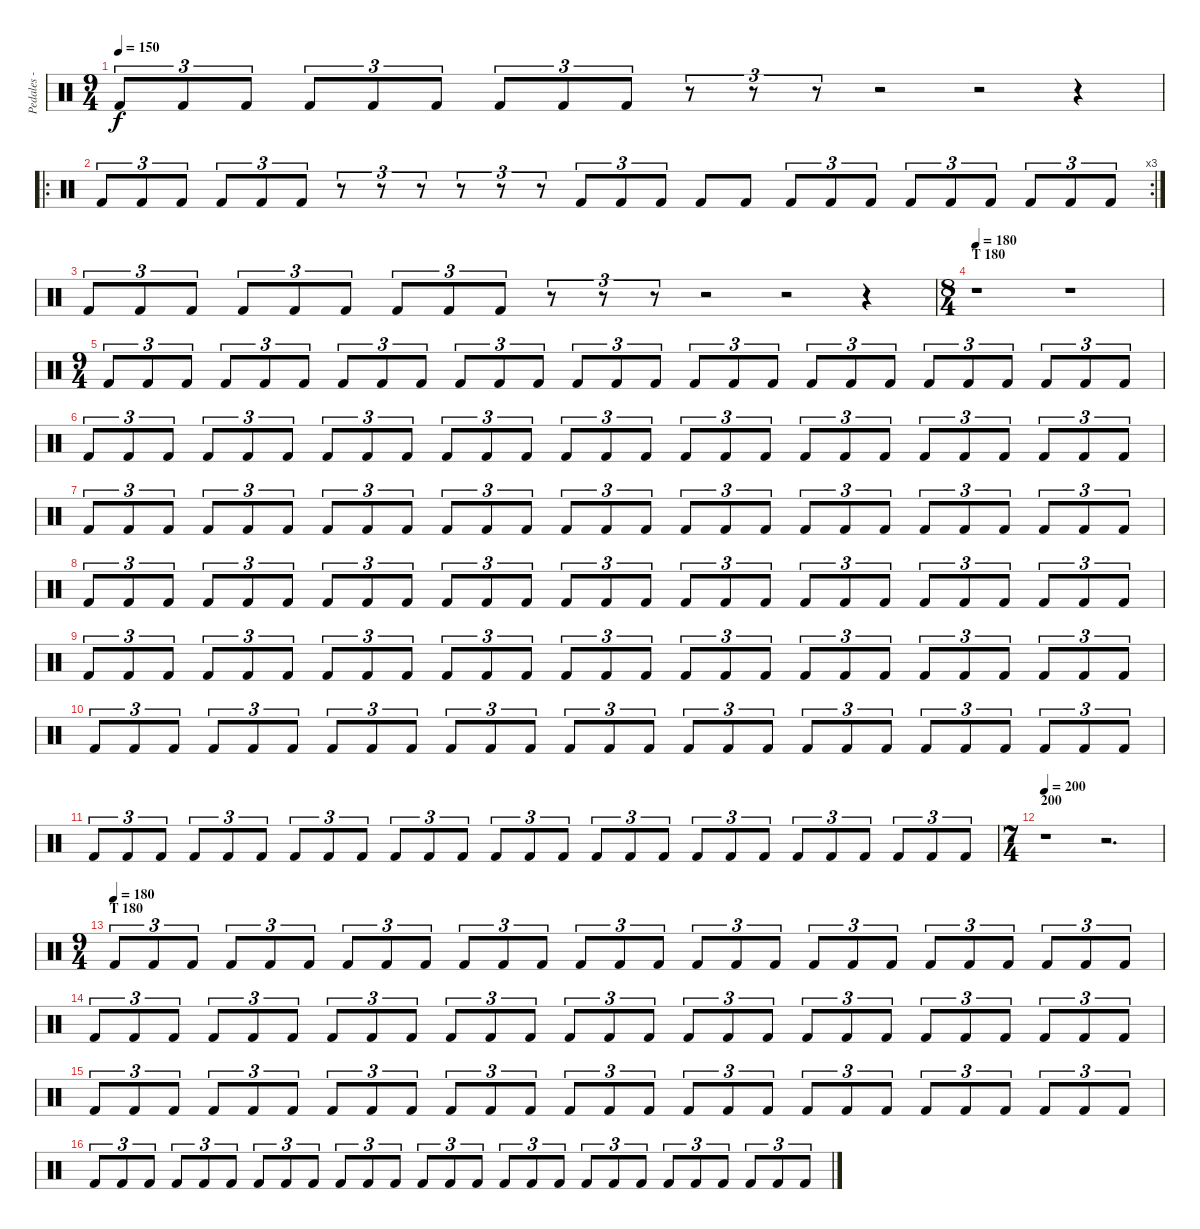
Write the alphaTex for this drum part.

\track ("Pedales - Compa" "Pedales - ") {instrument percussion}
\staff {score}
\articulation defaults
\ts (9 4)
\tempo 150
\clef neutral
\ks c "Kick (hit) 2".8{tu (3 2) dy f} "Kick (hit) 2".8{tu (3 2)} "Kick (hit) 2".8{tu (3 2)} "Kick (hit) 2".8{tu (3 2)} "Kick (hit) 2".8{tu (3 2)} "Kick (hit) 2".8{tu (3 2)} "Kick (hit) 2".8{tu (3 2)} "Kick (hit) 2".8{tu (3 2)} "Kick (hit) 2".8{tu (3 2)}
r.8{tu (3 2)} r.8{tu (3 2)} r.8{tu (3 2)} r.2 r.2 r.4 |
\ro
\rc 3 "Kick (hit) 2".8{tu (3 2)} "Kick (hit) 2".8{tu (3 2)} "Kick (hit) 2".8{tu (3 2)} "Kick (hit) 2".8{tu (3 2)} "Kick (hit) 2".8{tu (3 2)} "Kick (hit) 2".8{tu (3 2)}
r.8{tu (3 2)} r.8{tu (3 2)} r.8{tu (3 2)} r.8{tu (3 2)} r.8{tu (3 2)} r.8{tu (3 2)} "Kick (hit) 2".8{tu (3 2)} "Kick (hit) 2".8{tu (3 2)} "Kick (hit) 2".8{tu (3 2)} "Kick (hit) 2".8 "Kick (hit) 2".8 "Kick (hit) 2".8{tu (3 2)} "Kick (hit) 2".8{tu (3 2)} "Kick (hit) 2".8{tu (3 2)} "Kick (hit) 2".8{tu (3 2)} "Kick (hit) 2".8{tu (3 2)} "Kick (hit) 2".8{tu (3 2)} "Kick (hit) 2".8{tu (3 2)} "Kick (hit) 2".8{tu (3 2)} "Kick (hit) 2".8{tu (3 2)} |
"Kick (hit) 2".8{tu (3 2)} "Kick (hit) 2".8{tu (3 2)} "Kick (hit) 2".8{tu (3 2)} "Kick (hit) 2".8{tu (3 2)} "Kick (hit) 2".8{tu (3 2)} "Kick (hit) 2".8{tu (3 2)} "Kick (hit) 2".8{tu (3 2)} "Kick (hit) 2".8{tu (3 2)} "Kick (hit) 2".8{tu (3 2)} r.8{tu (3 2)} r.8{tu (3 2)} r.8{tu (3 2)} r.2 r.2 r.4 |
\ts (8 4)
\section ("" "T 180")
\tempo 180
r.1 r.1 |
\ts (9 4)
"Kick (hit) 2".8{tu (3 2)} "Kick (hit) 2".8{tu (3 2)} "Kick (hit) 2".8{tu (3 2)} "Kick (hit) 2".8{tu (3 2)} "Kick (hit) 2".8{tu (3 2)} "Kick (hit) 2".8{tu (3 2)} "Kick (hit) 2".8{tu (3 2)} "Kick (hit) 2".8{tu (3 2)} "Kick (hit) 2".8{tu (3 2)} "Kick (hit) 2".8{tu (3 2)} "Kick (hit) 2".8{tu (3 2)} "Kick (hit) 2".8{tu (3 2)} "Kick (hit) 2".8{tu (3 2)} "Kick (hit) 2".8{tu (3 2)} "Kick (hit) 2".8{tu (3 2)} "Kick (hit) 2".8{tu (3 2)} "Kick (hit) 2".8{tu (3 2)} "Kick (hit) 2".8{tu (3 2)} "Kick (hit) 2".8{tu (3 2)} "Kick (hit) 2".8{tu (3 2)} "Kick (hit) 2".8{tu (3 2)} "Kick (hit) 2".8{tu (3 2)} "Kick (hit) 2".8{tu (3 2)} "Kick (hit) 2".8{tu (3 2)} "Kick (hit) 2".8{tu (3 2)} "Kick (hit) 2".8{tu (3 2)} "Kick (hit) 2".8{tu (3 2)} |
"Kick (hit) 2".8{tu (3 2)} "Kick (hit) 2".8{tu (3 2)} "Kick (hit) 2".8{tu (3 2)} "Kick (hit) 2".8{tu (3 2)} "Kick (hit) 2".8{tu (3 2)} "Kick (hit) 2".8{tu (3 2)} "Kick (hit) 2".8{tu (3 2)} "Kick (hit) 2".8{tu (3 2)} "Kick (hit) 2".8{tu (3 2)} "Kick (hit) 2".8{tu (3 2)} "Kick (hit) 2".8{tu (3 2)} "Kick (hit) 2".8{tu (3 2)} "Kick (hit) 2".8{tu (3 2)} "Kick (hit) 2".8{tu (3 2)} "Kick (hit) 2".8{tu (3 2)} "Kick (hit) 2".8{tu (3 2)} "Kick (hit) 2".8{tu (3 2)} "Kick (hit) 2".8{tu (3 2)} "Kick (hit) 2".8{tu (3 2)} "Kick (hit) 2".8{tu (3 2)} "Kick (hit) 2".8{tu (3 2)} "Kick (hit) 2".8{tu (3 2)} "Kick (hit) 2".8{tu (3 2)} "Kick (hit) 2".8{tu (3 2)} "Kick (hit) 2".8{tu (3 2)} "Kick (hit) 2".8{tu (3 2)} "Kick (hit) 2".8{tu (3 2)} |
"Kick (hit) 2".8{tu (3 2)} "Kick (hit) 2".8{tu (3 2)} "Kick (hit) 2".8{tu (3 2)} "Kick (hit) 2".8{tu (3 2)} "Kick (hit) 2".8{tu (3 2)} "Kick (hit) 2".8{tu (3 2)} "Kick (hit) 2".8{tu (3 2)} "Kick (hit) 2".8{tu (3 2)} "Kick (hit) 2".8{tu (3 2)} "Kick (hit) 2".8{tu (3 2)} "Kick (hit) 2".8{tu (3 2)} "Kick (hit) 2".8{tu (3 2)} "Kick (hit) 2".8{tu (3 2)} "Kick (hit) 2".8{tu (3 2)} "Kick (hit) 2".8{tu (3 2)} "Kick (hit) 2".8{tu (3 2)} "Kick (hit) 2".8{tu (3 2)} "Kick (hit) 2".8{tu (3 2)} "Kick (hit) 2".8{tu (3 2)} "Kick (hit) 2".8{tu (3 2)} "Kick (hit) 2".8{tu (3 2)} "Kick (hit) 2".8{tu (3 2)} "Kick (hit) 2".8{tu (3 2)} "Kick (hit) 2".8{tu (3 2)} "Kick (hit) 2".8{tu (3 2)} "Kick (hit) 2".8{tu (3 2)} "Kick (hit) 2".8{tu (3 2)} |
"Kick (hit) 2".8{tu (3 2)} "Kick (hit) 2".8{tu (3 2)} "Kick (hit) 2".8{tu (3 2)} "Kick (hit) 2".8{tu (3 2)} "Kick (hit) 2".8{tu (3 2)} "Kick (hit) 2".8{tu (3 2)} "Kick (hit) 2".8{tu (3 2)} "Kick (hit) 2".8{tu (3 2)} "Kick (hit) 2".8{tu (3 2)} "Kick (hit) 2".8{tu (3 2)} "Kick (hit) 2".8{tu (3 2)} "Kick (hit) 2".8{tu (3 2)} "Kick (hit) 2".8{tu (3 2)} "Kick (hit) 2".8{tu (3 2)} "Kick (hit) 2".8{tu (3 2)} "Kick (hit) 2".8{tu (3 2)} "Kick (hit) 2".8{tu (3 2)} "Kick (hit) 2".8{tu (3 2)} "Kick (hit) 2".8{tu (3 2)} "Kick (hit) 2".8{tu (3 2)} "Kick (hit) 2".8{tu (3 2)} "Kick (hit) 2".8{tu (3 2)} "Kick (hit) 2".8{tu (3 2)} "Kick (hit) 2".8{tu (3 2)} "Kick (hit) 2".8{tu (3 2)} "Kick (hit) 2".8{tu (3 2)} "Kick (hit) 2".8{tu (3 2)} |
"Kick (hit) 2".8{tu (3 2)} "Kick (hit) 2".8{tu (3 2)} "Kick (hit) 2".8{tu (3 2)} "Kick (hit) 2".8{tu (3 2)} "Kick (hit) 2".8{tu (3 2)} "Kick (hit) 2".8{tu (3 2)} "Kick (hit) 2".8{tu (3 2)} "Kick (hit) 2".8{tu (3 2)} "Kick (hit) 2".8{tu (3 2)} "Kick (hit) 2".8{tu (3 2)} "Kick (hit) 2".8{tu (3 2)} "Kick (hit) 2".8{tu (3 2)} "Kick (hit) 2".8{tu (3 2)} "Kick (hit) 2".8{tu (3 2)} "Kick (hit) 2".8{tu (3 2)} "Kick (hit) 2".8{tu (3 2)} "Kick (hit) 2".8{tu (3 2)} "Kick (hit) 2".8{tu (3 2)} "Kick (hit) 2".8{tu (3 2)} "Kick (hit) 2".8{tu (3 2)} "Kick (hit) 2".8{tu (3 2)} "Kick (hit) 2".8{tu (3 2)} "Kick (hit) 2".8{tu (3 2)} "Kick (hit) 2".8{tu (3 2)} "Kick (hit) 2".8{tu (3 2)} "Kick (hit) 2".8{tu (3 2)} "Kick (hit) 2".8{tu (3 2)} |
"Kick (hit) 2".8{tu (3 2)} "Kick (hit) 2".8{tu (3 2)} "Kick (hit) 2".8{tu (3 2)} "Kick (hit) 2".8{tu (3 2)} "Kick (hit) 2".8{tu (3 2)} "Kick (hit) 2".8{tu (3 2)} "Kick (hit) 2".8{tu (3 2)} "Kick (hit) 2".8{tu (3 2)} "Kick (hit) 2".8{tu (3 2)} "Kick (hit) 2".8{tu (3 2)} "Kick (hit) 2".8{tu (3 2)} "Kick (hit) 2".8{tu (3 2)} "Kick (hit) 2".8{tu (3 2)} "Kick (hit) 2".8{tu (3 2)} "Kick (hit) 2".8{tu (3 2)} "Kick (hit) 2".8{tu (3 2)} "Kick (hit) 2".8{tu (3 2)} "Kick (hit) 2".8{tu (3 2)} "Kick (hit) 2".8{tu (3 2)} "Kick (hit) 2".8{tu (3 2)} "Kick (hit) 2".8{tu (3 2)} "Kick (hit) 2".8{tu (3 2)} "Kick (hit) 2".8{tu (3 2)} "Kick (hit) 2".8{tu (3 2)} "Kick (hit) 2".8{tu (3 2)} "Kick (hit) 2".8{tu (3 2)} "Kick (hit) 2".8{tu (3 2)} |
"Kick (hit) 2".8{tu (3 2)} "Kick (hit) 2".8{tu (3 2)} "Kick (hit) 2".8{tu (3 2)} "Kick (hit) 2".8{tu (3 2)} "Kick (hit) 2".8{tu (3 2)} "Kick (hit) 2".8{tu (3 2)} "Kick (hit) 2".8{tu (3 2)} "Kick (hit) 2".8{tu (3 2)} "Kick (hit) 2".8{tu (3 2)} "Kick (hit) 2".8{tu (3 2)} "Kick (hit) 2".8{tu (3 2)} "Kick (hit) 2".8{tu (3 2)} "Kick (hit) 2".8{tu (3 2)} "Kick (hit) 2".8{tu (3 2)} "Kick (hit) 2".8{tu (3 2)} "Kick (hit) 2".8{tu (3 2)} "Kick (hit) 2".8{tu (3 2)} "Kick (hit) 2".8{tu (3 2)} "Kick (hit) 2".8{tu (3 2)} "Kick (hit) 2".8{tu (3 2)} "Kick (hit) 2".8{tu (3 2)} "Kick (hit) 2".8{tu (3 2)} "Kick (hit) 2".8{tu (3 2)} "Kick (hit) 2".8{tu (3 2)} "Kick (hit) 2".8{tu (3 2)} "Kick (hit) 2".8{tu (3 2)} "Kick (hit) 2".8{tu (3 2)} |
\ts (7 4)
\section ("" "200")
\tempo 200
r.1 r.2{d} |
\ts (9 4)
\section ("" "T 180")
\tempo (180)
"Kick (hit) 2".8{tu (3 2)} "Kick (hit) 2".8{tu (3 2)} "Kick (hit) 2".8{tu (3 2)} "Kick (hit) 2".8{tu (3 2)} "Kick (hit) 2".8{tu (3 2)} "Kick (hit) 2".8{tu (3 2)} "Kick (hit) 2".8{tu (3 2)} "Kick (hit) 2".8{tu (3 2)} "Kick (hit) 2".8{tu (3 2)} "Kick (hit) 2".8{tu (3 2)} "Kick (hit) 2".8{tu (3 2)} "Kick (hit) 2".8{tu (3 2)} "Kick (hit) 2".8{tu (3 2)} "Kick (hit) 2".8{tu (3 2)} "Kick (hit) 2".8{tu (3 2)} "Kick (hit) 2".8{tu (3 2)} "Kick (hit) 2".8{tu (3 2)} "Kick (hit) 2".8{tu (3 2)} "Kick (hit) 2".8{tu (3 2)} "Kick (hit) 2".8{tu (3 2)} "Kick (hit) 2".8{tu (3 2)} "Kick (hit) 2".8{tu (3 2)} "Kick (hit) 2".8{tu (3 2)} "Kick (hit) 2".8{tu (3 2)} "Kick (hit) 2".8{tu (3 2)} "Kick (hit) 2".8{tu (3 2)} "Kick (hit) 2".8{tu (3 2)} |
"Kick (hit) 2".8{tu (3 2)} "Kick (hit) 2".8{tu (3 2)} "Kick (hit) 2".8{tu (3 2)} "Kick (hit) 2".8{tu (3 2)} "Kick (hit) 2".8{tu (3 2)} "Kick (hit) 2".8{tu (3 2)} "Kick (hit) 2".8{tu (3 2)} "Kick (hit) 2".8{tu (3 2)} "Kick (hit) 2".8{tu (3 2)} "Kick (hit) 2".8{tu (3 2)} "Kick (hit) 2".8{tu (3 2)} "Kick (hit) 2".8{tu (3 2)} "Kick (hit) 2".8{tu (3 2)} "Kick (hit) 2".8{tu (3 2)} "Kick (hit) 2".8{tu (3 2)} "Kick (hit) 2".8{tu (3 2)} "Kick (hit) 2".8{tu (3 2)} "Kick (hit) 2".8{tu (3 2)} "Kick (hit) 2".8{tu (3 2)} "Kick (hit) 2".8{tu (3 2)} "Kick (hit) 2".8{tu (3 2)} "Kick (hit) 2".8{tu (3 2)} "Kick (hit) 2".8{tu (3 2)} "Kick (hit) 2".8{tu (3 2)} "Kick (hit) 2".8{tu (3 2)} "Kick (hit) 2".8{tu (3 2)} "Kick (hit) 2".8{tu (3 2)} |
"Kick (hit) 2".8{tu (3 2)} "Kick (hit) 2".8{tu (3 2)} "Kick (hit) 2".8{tu (3 2)} "Kick (hit) 2".8{tu (3 2)} "Kick (hit) 2".8{tu (3 2)} "Kick (hit) 2".8{tu (3 2)} "Kick (hit) 2".8{tu (3 2)} "Kick (hit) 2".8{tu (3 2)} "Kick (hit) 2".8{tu (3 2)} "Kick (hit) 2".8{tu (3 2)} "Kick (hit) 2".8{tu (3 2)} "Kick (hit) 2".8{tu (3 2)} "Kick (hit) 2".8{tu (3 2)} "Kick (hit) 2".8{tu (3 2)} "Kick (hit) 2".8{tu (3 2)} "Kick (hit) 2".8{tu (3 2)} "Kick (hit) 2".8{tu (3 2)} "Kick (hit) 2".8{tu (3 2)} "Kick (hit) 2".8{tu (3 2)} "Kick (hit) 2".8{tu (3 2)} "Kick (hit) 2".8{tu (3 2)} "Kick (hit) 2".8{tu (3 2)} "Kick (hit) 2".8{tu (3 2)} "Kick (hit) 2".8{tu (3 2)} "Kick (hit) 2".8{tu (3 2)} "Kick (hit) 2".8{tu (3 2)} "Kick (hit) 2".8{tu (3 2)} |
"Kick (hit) 2".8{tu (3 2)} "Kick (hit) 2".8{tu (3 2)} "Kick (hit) 2".8{tu (3 2)} "Kick (hit) 2".8{tu (3 2)} "Kick (hit) 2".8{tu (3 2)} "Kick (hit) 2".8{tu (3 2)} "Kick (hit) 2".8{tu (3 2)} "Kick (hit) 2".8{tu (3 2)} "Kick (hit) 2".8{tu (3 2)} "Kick (hit) 2".8{tu (3 2)} "Kick (hit) 2".8{tu (3 2)} "Kick (hit) 2".8{tu (3 2)} "Kick (hit) 2".8{tu (3 2)} "Kick (hit) 2".8{tu (3 2)} "Kick (hit) 2".8{tu (3 2)} "Kick (hit) 2".8{tu (3 2)} "Kick (hit) 2".8{tu (3 2)} "Kick (hit) 2".8{tu (3 2)} "Kick (hit) 2".8{tu (3 2)} "Kick (hit) 2".8{tu (3 2)} "Kick (hit) 2".8{tu (3 2)} "Kick (hit) 2".8{tu (3 2)} "Kick (hit) 2".8{tu (3 2)} "Kick (hit) 2".8{tu (3 2)} "Kick (hit) 2".8{tu (3 2)} "Kick (hit) 2".8{tu (3 2)} "Kick (hit) 2".8{tu (3 2)}
